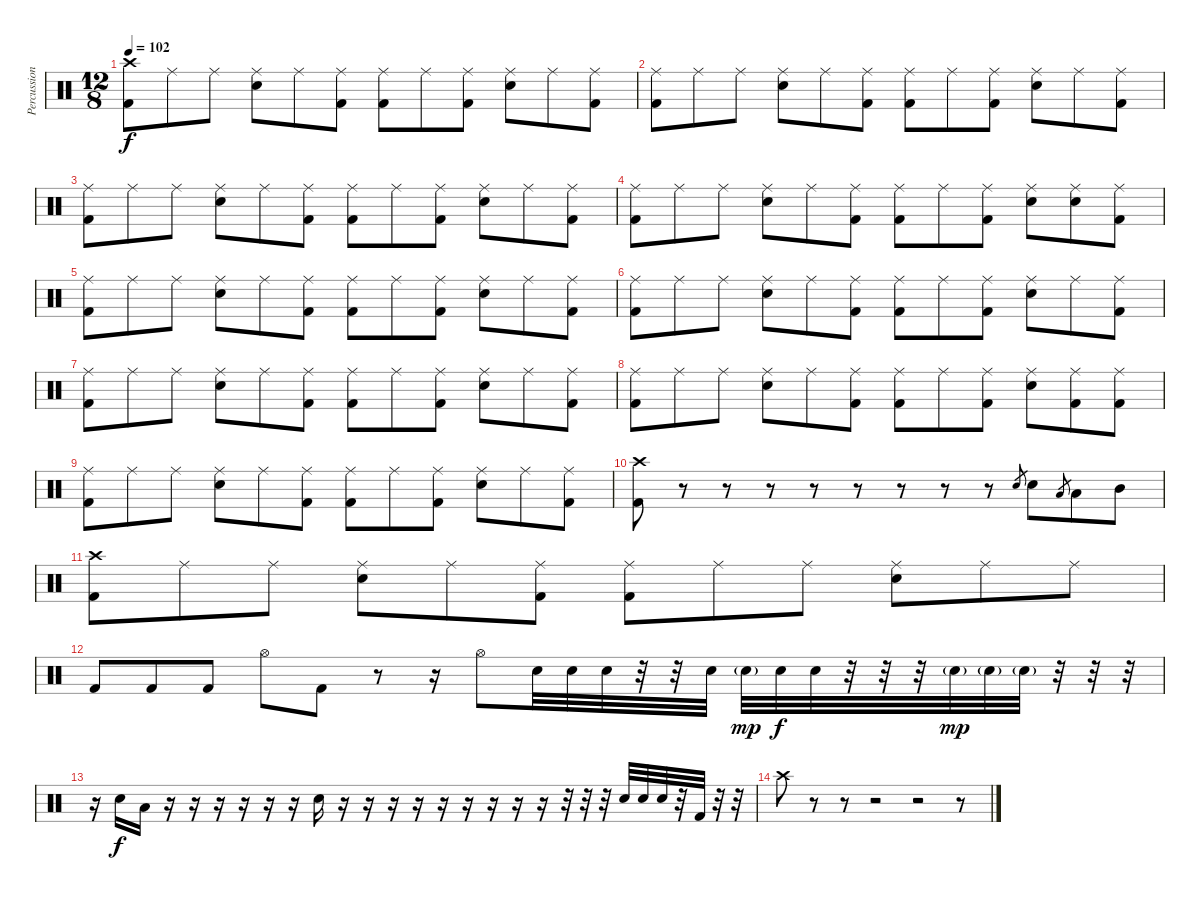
\track ("Percussion" "Percussion") {instrument percussion}
\staff {score}
\articulation defaults
\ts (12 8)
\tempo 102
\clef neutral
\ks c
("Crash high (hit)" "Kick (hit) 2").8{dy f} "Ride (middle)".8 "Ride (middle)".8 ("Ride (middle)" "Electric Snare (hit)").8 "Ride (middle)".8 ("Ride (middle)" "Kick (hit) 2").8 ("Ride (middle)" "Kick (hit) 2").8 "Ride (middle)".8 ("Ride (middle)" "Kick (hit) 2").8 ("Ride (middle)" "Electric Snare (hit)").8 "Ride (middle)".8 ("Ride (middle)" "Kick (hit) 2").8 |
("Ride (middle)" "Kick (hit) 2").8 "Ride (middle)".8 "Ride (middle)".8 ("Ride (middle)" "Electric Snare (hit)").8 "Ride (middle)".8 ("Ride (middle)" "Kick (hit) 2").8 ("Ride (middle)" "Kick (hit) 2").8 "Ride (middle)".8 ("Ride (middle)" "Kick (hit) 2").8 ("Ride (middle)" "Electric Snare (hit)").8 "Ride (middle)".8 ("Ride (middle)" "Kick (hit) 2").8 |
("Ride (middle)" "Kick (hit) 2").8 "Ride (middle)".8 "Ride (middle)".8 ("Ride (middle)" "Electric Snare (hit)").8 "Ride (middle)".8 ("Ride (middle)" "Kick (hit) 2").8 ("Ride (middle)" "Kick (hit) 2").8 "Ride (middle)".8 ("Ride (middle)" "Kick (hit) 2").8 ("Ride (middle)" "Electric Snare (hit)").8 "Ride (middle)".8 ("Ride (middle)" "Kick (hit) 2").8 |
("Ride (middle)" "Kick (hit) 2").8 "Ride (middle)".8 "Ride (middle)".8 ("Ride (middle)" "Electric Snare (hit)").8 "Ride (middle)".8 ("Ride (middle)" "Kick (hit) 2").8 ("Ride (middle)" "Kick (hit) 2").8 "Ride (middle)".8 ("Ride (middle)" "Kick (hit) 2").8 ("Ride (middle)" "Electric Snare (hit)").8 ("Ride (middle)" "Electric Snare (hit)").8 ("Ride (middle)" "Kick (hit) 2").8 |
("Ride (middle)" "Kick (hit) 2").8 "Ride (middle)".8 "Ride (middle)".8 ("Ride (middle)" "Electric Snare (hit)").8 "Ride (middle)".8 ("Ride (middle)" "Kick (hit) 2").8 ("Ride (middle)" "Kick (hit) 2").8 "Ride (middle)".8 ("Ride (middle)" "Kick (hit) 2").8 ("Ride (middle)" "Electric Snare (hit)").8 "Ride (middle)".8 ("Ride (middle)" "Kick (hit) 2").8 |
("Ride (middle)" "Kick (hit) 2").8 "Ride (middle)".8 "Ride (middle)".8 ("Ride (middle)" "Electric Snare (hit)").8 "Ride (middle)".8 ("Ride (middle)" "Kick (hit) 2").8 ("Ride (middle)" "Kick (hit) 2").8 "Ride (middle)".8 ("Ride (middle)" "Kick (hit) 2").8 ("Ride (middle)" "Electric Snare (hit)").8 "Ride (middle)".8 ("Ride (middle)" "Kick (hit) 2").8 |
("Ride (middle)" "Kick (hit) 2").8 "Ride (middle)".8 "Ride (middle)".8 ("Ride (middle)" "Electric Snare (hit)").8 "Ride (middle)".8 ("Ride (middle)" "Kick (hit) 2").8 ("Ride (middle)" "Kick (hit) 2").8 "Ride (middle)".8 ("Ride (middle)" "Kick (hit) 2").8 ("Ride (middle)" "Electric Snare (hit)").8 "Ride (middle)".8 ("Ride (middle)" "Kick (hit) 2").8 |
("Ride (middle)" "Kick (hit) 2").8 "Ride (middle)".8 "Ride (middle)".8 ("Ride (middle)" "Electric Snare (hit)").8 "Ride (middle)".8 ("Ride (middle)" "Kick (hit) 2").8 ("Ride (middle)" "Kick (hit) 2").8 "Ride (middle)".8 ("Ride (middle)" "Kick (hit) 2").8 ("Ride (middle)" "Electric Snare (hit)").8 ("Ride (middle)" "Kick (hit) 2").8 ("Ride (middle)" "Kick (hit) 2").8 |
("Ride (middle)" "Kick (hit) 2").8 "Ride (middle)".8 "Ride (middle)".8 ("Ride (middle)" "Electric Snare (hit)").8 "Ride (middle)".8 ("Ride (middle)" "Kick (hit) 2").8 ("Ride (middle)" "Kick (hit) 2").8 "Ride (middle)".8 ("Ride (middle)" "Kick (hit) 2").8 ("Ride (middle)" "Electric Snare (hit)").8 "Ride (middle)".8 ("Ride (middle)" "Kick (hit) 2").8 |
("Crash high (hit)" "Kick (hit) 2").8 r.8 r.8 r.8 r.8 r.8 r.8 r.8 r.8 "Electric Snare (hit)".8{gr} "Electric Snare (hit)".8 "Low Tom (hit)".8{gr} "Low Tom (hit)".8 "Mid Tom (hit)".8 |
("Crash high (hit)" "Kick (hit) 2").8 "Ride (middle)".8 "Ride (middle)".8 ("Ride (middle)" "Electric Snare (hit)").8 "Ride (middle)".8 ("Ride (middle)" "Kick (hit) 2").8 ("Ride (middle)" "Kick (hit) 2").8 "Ride (middle)".8 "Ride (middle)".8 ("Ride (middle)" "Electric Snare (hit)").8 "Ride (middle)".8 "Ride (middle)".8 |
"Kick (hit) 2".8 "Kick (hit) 2".8 "Kick (hit) 2".8 "Hi-Hat (open)".8 "Kick (hit) 2".8 r.8 r.16 "Hi-Hat (open)".8 "Electric Snare (hit)".32 "Electric Snare (hit)".32 "Electric Snare (hit)".32 r.32 r.32 "Electric Snare (hit)".32 "Electric Snare (hit)"{g}.32{dy mp} "Electric Snare (hit)".32{dy f} "Electric Snare (hit)".32 r.32 r.32 r.32 "Electric Snare (hit)"{g}.32{dy mp} "Electric Snare (hit)"{g}.32 "Electric Snare (hit)"{g}.32 r.32 r.32 r.32 |
r.16 "Electric Snare (hit)".16{dy f} "Low Tom (hit)".16 r.16 r.16 r.16 r.16 r.16 r.16 "Electric Snare (hit)".16 r.16 r.16 r.16 r.16 r.16 r.16 r.16 r.16 r.16 r.32 r.32 r.32 "Electric Snare (hit)".32 "Electric Snare (hit)".32 "Electric Snare (hit)".32 r.32 "Kick (hit) 2".32 r.32 r.32 |
"Crash high (hit)".8 r.8 r.8 r.2 r.2 r.8
